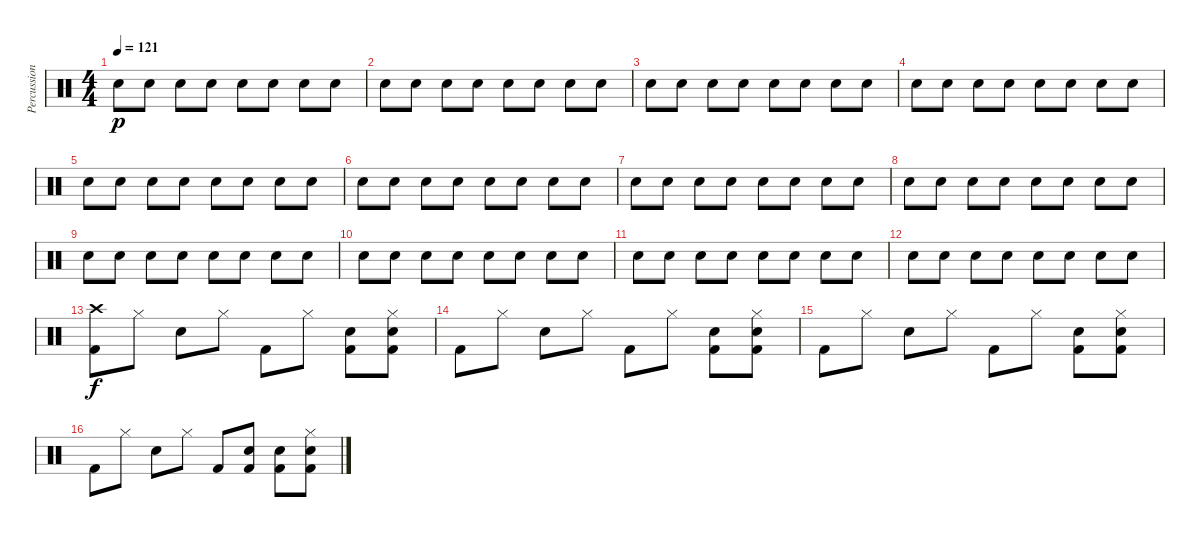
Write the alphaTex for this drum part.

\track ("Percussion" "Percussion") {instrument percussion}
\staff {score}
\articulation defaults
\ts (4 4)
\tempo 121
\clef neutral
\ks c "Snare (hit) 2".8{dy p} "Snare (hit) 2".8 "Snare (hit) 2".8 "Snare (hit) 2".8 "Snare (hit) 2".8 "Snare (hit) 2".8 "Snare (hit) 2".8 "Snare (hit) 2".8
|
"Snare (hit) 2".8 "Snare (hit) 2".8 "Snare (hit) 2".8 "Snare (hit) 2".8 "Snare (hit) 2".8 "Snare (hit) 2".8 "Snare (hit) 2".8 "Snare (hit) 2".8 |
"Snare (hit) 2".8 "Snare (hit) 2".8 "Snare (hit) 2".8 "Snare (hit) 2".8 "Snare (hit) 2".8 "Snare (hit) 2".8 "Snare (hit) 2".8 "Snare (hit) 2".8 |
"Snare (hit) 2".8 "Snare (hit) 2".8 "Snare (hit) 2".8 "Snare (hit) 2".8 "Snare (hit) 2".8 "Snare (hit) 2".8 "Snare (hit) 2".8 "Snare (hit) 2".8 |
"Snare (hit) 2".8 "Snare (hit) 2".8 "Snare (hit) 2".8 "Snare (hit) 2".8 "Snare (hit) 2".8 "Snare (hit) 2".8 "Snare (hit) 2".8 "Snare (hit) 2".8 |
"Snare (hit) 2".8 "Snare (hit) 2".8 "Snare (hit) 2".8 "Snare (hit) 2".8 "Snare (hit) 2".8 "Snare (hit) 2".8 "Snare (hit) 2".8 "Snare (hit) 2".8 |
"Snare (hit) 2".8 "Snare (hit) 2".8 "Snare (hit) 2".8 "Snare (hit) 2".8 "Snare (hit) 2".8 "Snare (hit) 2".8 "Snare (hit) 2".8 "Snare (hit) 2".8 |
"Snare (hit) 2".8 "Snare (hit) 2".8 "Snare (hit) 2".8 "Snare (hit) 2".8 "Snare (hit) 2".8 "Snare (hit) 2".8 "Snare (hit) 2".8 "Snare (hit) 2".8 |
"Snare (hit) 2".8 "Snare (hit) 2".8 "Snare (hit) 2".8 "Snare (hit) 2".8 "Snare (hit) 2".8 "Snare (hit) 2".8 "Snare (hit) 2".8 "Snare (hit) 2".8 |
"Snare (hit) 2".8 "Snare (hit) 2".8 "Snare (hit) 2".8 "Snare (hit) 2".8 "Snare (hit) 2".8 "Snare (hit) 2".8 "Snare (hit) 2".8 "Snare (hit) 2".8 |
"Snare (hit) 2".8 "Snare (hit) 2".8 "Snare (hit) 2".8 "Snare (hit) 2".8 "Snare (hit) 2".8 "Snare (hit) 2".8 "Snare (hit) 2".8 "Snare (hit) 2".8 |
"Snare (hit) 2".8 "Snare (hit) 2".8 "Snare (hit) 2".8 "Snare (hit) 2".8 "Snare (hit) 2".8 "Snare (hit) 2".8 "Snare (hit) 2".8 "Snare (hit) 2".8 |
("Crash high (hit)" "Kick (hit) 2").8{dy f} "Hi-Hat (closed)".8 "Snare (hit) 2".8 "Hi-Hat (closed)".8 "Kick (hit) 2".8 "Hi-Hat (closed)".8 ("Kick (hit) 2" "Snare (hit) 2").8 ("Hi-Hat (closed)" "Kick (hit) 2" "Snare (hit) 2").8 |
"Kick (hit) 2".8 "Hi-Hat (closed)".8 "Snare (hit) 2".8 "Hi-Hat (closed)".8 "Kick (hit) 2".8 "Hi-Hat (closed)".8 ("Kick (hit) 2" "Snare (hit) 2").8 ("Hi-Hat (closed)" "Kick (hit) 2" "Snare (hit) 2").8 |
"Kick (hit) 2".8 "Hi-Hat (closed)".8 "Snare (hit) 2".8 "Hi-Hat (closed)".8 "Kick (hit) 2".8 "Hi-Hat (closed)".8 ("Kick (hit) 2" "Snare (hit) 2").8 ("Hi-Hat (closed)" "Kick (hit) 2" "Snare (hit) 2").8 |
"Kick (hit) 2".8 "Hi-Hat (closed)".8 "Snare (hit) 2".8 "Hi-Hat (closed)".8 "Kick (hit) 2".8 ("Kick (hit) 2" "Snare (hit) 2").8 ("Kick (hit) 2" "Snare (hit) 2").8 ("Hi-Hat (closed)" "Kick (hit) 2" "Snare (hit) 2").8
